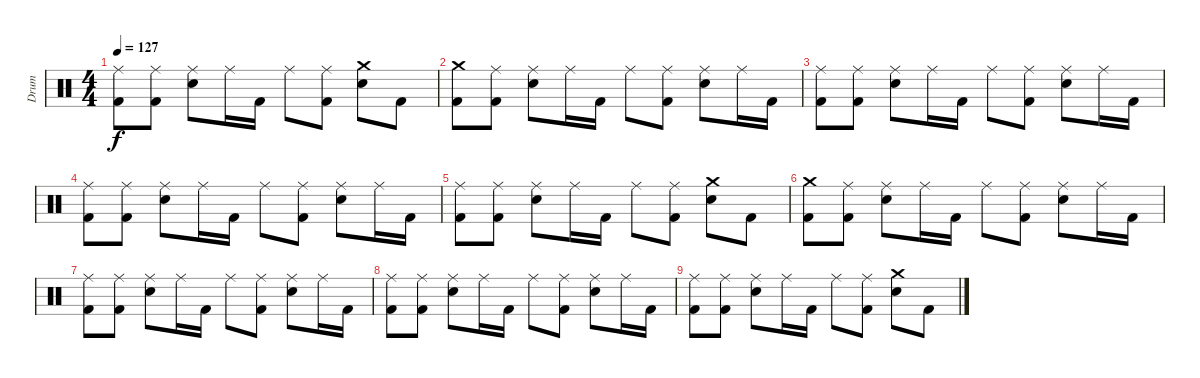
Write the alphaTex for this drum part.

\track ("Drum" "Drum") {instrument percussion}
\staff {score}
\articulation defaults
\ts (4 4)
\tempo 127
\clef neutral
\ks c
("Kick (hit) 2" "Ride (middle)").8{dy f} ("Ride (middle)" "Kick (hit) 2").8 ("Ride (middle)" "Snare (hit) 2").8 "Ride (middle)".16 "Kick (hit) 2".16 "Ride (middle)".8{volume 12} ("Ride (middle)" "Kick (hit) 2").8{volume 12} ("Crash medium (hit)" "Snare (hit) 2").8{volume 12} "Kick (hit) 2".8{volume 12} |
("Crash medium (hit)" "Kick (hit) 2").8{volume 12} ("Ride (middle)" "Kick (hit) 2").8{volume 11} ("Ride (middle)" "Snare (hit) 2").8{volume 11} "Ride (middle)".16{volume 11} "Kick (hit) 2".16{volume 11} "Ride (middle)".8{volume 10} ("Ride (middle)" "Kick (hit) 2").8{volume 10} ("Ride (middle)" "Snare (hit) 2").8{volume 10} "Ride (middle)".16{volume 10} "Kick (hit) 2".16{volume 10} |
("Kick (hit) 2" "Ride (middle)").8{volume 10} ("Ride (middle)" "Kick (hit) 2").8{volume 9} ("Ride (middle)" "Snare (hit) 2").8{volume 9} "Ride (middle)".16{volume 9} "Kick (hit) 2".16{volume 9} "Ride (middle)".8{volume 9} ("Ride (middle)" "Kick (hit) 2").8{volume 8} ("Ride (middle)" "Snare (hit) 2").8{volume 8} "Ride (middle)".16{volume 8} "Kick (hit) 2".16{volume 8} |
("Kick (hit) 2" "Ride (middle)").8{volume 8} ("Ride (middle)" "Kick (hit) 2").8{volume 8} ("Ride (middle)" "Snare (hit) 2").8{volume 7} "Ride (middle)".16{volume 7} "Kick (hit) 2".16{volume 7} "Ride (middle)".8{volume 7} ("Ride (middle)" "Kick (hit) 2").8{volume 6} ("Ride (middle)" "Snare (hit) 2").8{volume 6} "Ride (middle)".16{volume 6} "Kick (hit) 2".16{volume 6} |
("Kick (hit) 2" "Ride (middle)").8{volume 6} ("Ride (middle)" "Kick (hit) 2").8{volume 6} ("Ride (middle)" "Snare (hit) 2").8{volume 5} "Ride (middle)".16{volume 5} "Kick (hit) 2".16{volume 5} "Ride (middle)".8{volume 5} ("Ride (middle)" "Kick (hit) 2").8{volume 5} ("Crash medium (hit)" "Snare (hit) 2").8{volume 4} "Kick (hit) 2".8{volume 4} |
("Crash medium (hit)" "Kick (hit) 2").8{volume 4} ("Ride (middle)" "Kick (hit) 2").8{volume 4} ("Ride (middle)" "Snare (hit) 2").8{volume 3} "Ride (middle)".16{volume 3} "Kick (hit) 2".16{volume 3} "Ride (middle)".8{volume 3} ("Ride (middle)" "Kick (hit) 2").8{volume 3} ("Ride (middle)" "Snare (hit) 2").8{volume 2} "Ride (middle)".16{volume 2} "Kick (hit) 2".16{volume 2} |
("Kick (hit) 2" "Ride (middle)").8{volume 2} ("Ride (middle)" "Kick (hit) 2").8{volume 2} ("Ride (middle)" "Snare (hit) 2").8{volume 2} "Ride (middle)".16{volume 1} "Kick (hit) 2".16{volume 1} "Ride (middle)".8{volume 1} ("Ride (middle)" "Kick (hit) 2").8{volume 1} ("Ride (middle)" "Snare (hit) 2").8{volume 1} "Ride (middle)".16{volume 0} "Kick (hit) 2".16{volume 0} |
("Kick (hit) 2" "Ride (middle)").8{volume 0} ("Ride (middle)" "Kick (hit) 2").8{volume 0} ("Ride (middle)" "Snare (hit) 2").8{volume 0} "Ride (middle)".16{volume 0} "Kick (hit) 2".16{volume 0} "Ride (middle)".8{volume 0} ("Ride (middle)" "Kick (hit) 2").8{volume 0} ("Ride (middle)" "Snare (hit) 2").8{volume 0} "Ride (middle)".16{volume 0} "Kick (hit) 2".16{volume 0} |
("Kick (hit) 2" "Ride (middle)").8{volume 0} ("Ride (middle)" "Kick (hit) 2").8{volume 0} ("Ride (middle)" "Snare (hit) 2").8{volume 0} "Ride (middle)".16 "Kick (hit) 2".16 "Ride (middle)".8 ("Ride (middle)" "Kick (hit) 2").8 ("Crash medium (hit)" "Snare (hit) 2").8 "Kick (hit) 2".8
